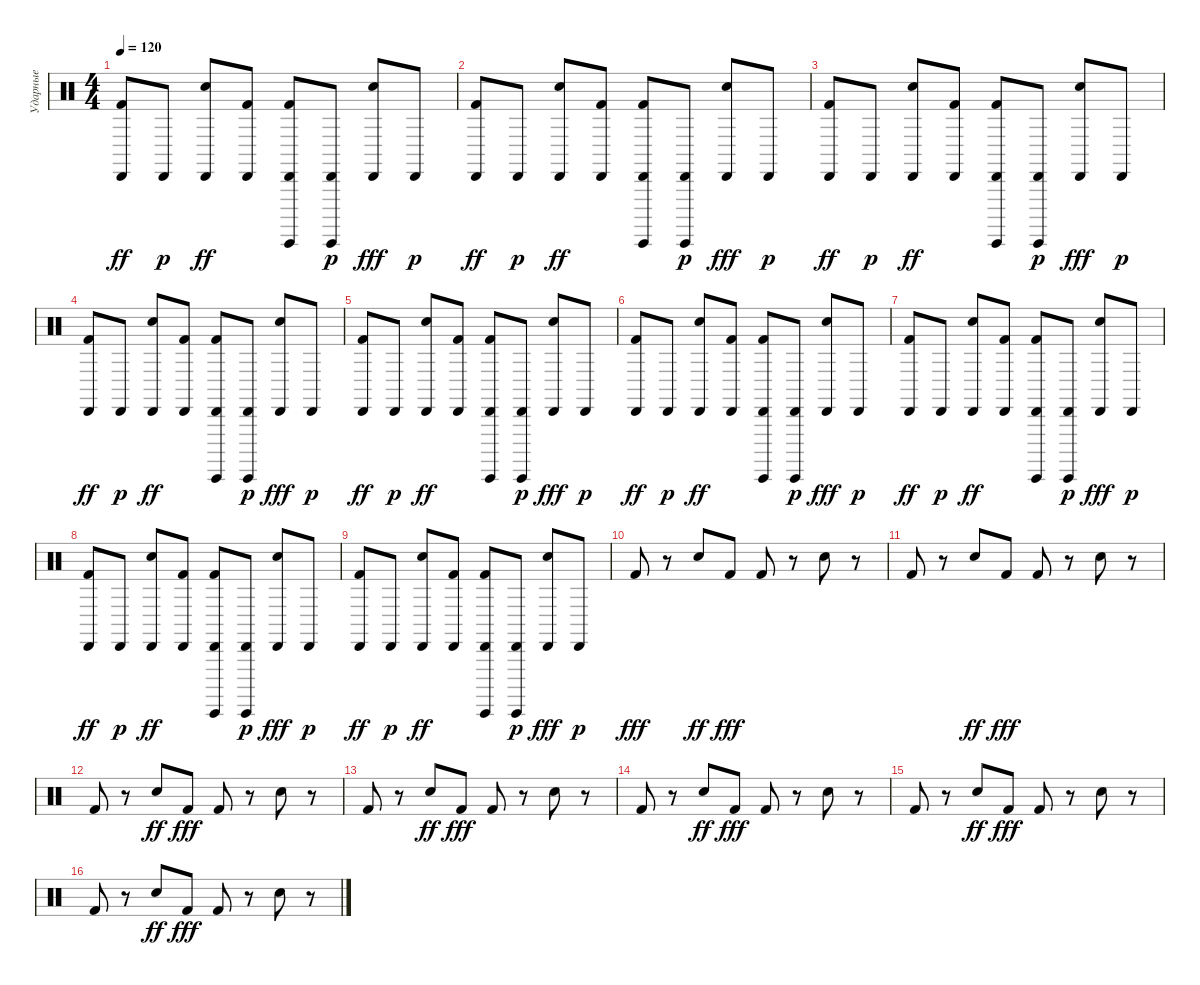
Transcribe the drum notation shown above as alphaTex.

\track ("Ударные" "Ударные") {instrument percussion}
\staff {score}
\articulation defaults
\ts (4 4)
\tempo 120
\clef neutral
\ks c
("Cabasa (hit)" "Kick (hit) 2").8{dy ff} "Cabasa (hit)".8{dy p} ("Cabasa (hit)" "Snare (hit) 2").8{dy ff} ("Cabasa (hit)" "Kick (hit) 2").8 ("Cabasa (hit)" "Guiro (hit)" "Kick (hit) 2").8 ("Cabasa (hit)" "Guiro (hit)").8{dy p} ("Cabasa (hit)" "Snare (hit) 2").8{dy fff} "Cabasa (hit)".8{dy p} |
("Cabasa (hit)" "Kick (hit) 2").8{dy ff} "Cabasa (hit)".8{dy p} ("Cabasa (hit)" "Snare (hit) 2").8{dy ff} ("Cabasa (hit)" "Kick (hit) 2").8 ("Cabasa (hit)" "Guiro (hit)" "Kick (hit) 2").8 ("Cabasa (hit)" "Guiro (hit)").8{dy p} ("Cabasa (hit)" "Snare (hit) 2").8{dy fff} "Cabasa (hit)".8{dy p} |
("Cabasa (hit)" "Kick (hit) 2").8{dy ff} "Cabasa (hit)".8{dy p} ("Cabasa (hit)" "Snare (hit) 2").8{dy ff} ("Cabasa (hit)" "Kick (hit) 2").8 ("Cabasa (hit)" "Guiro (hit)" "Kick (hit) 2").8 ("Cabasa (hit)" "Guiro (hit)").8{dy p} ("Cabasa (hit)" "Snare (hit) 2").8{dy fff} "Cabasa (hit)".8{dy p} |
("Cabasa (hit)" "Kick (hit) 2").8{dy ff} "Cabasa (hit)".8{dy p} ("Cabasa (hit)" "Snare (hit) 2").8{dy ff} ("Cabasa (hit)" "Kick (hit) 2").8 ("Cabasa (hit)" "Guiro (hit)" "Kick (hit) 2").8 ("Cabasa (hit)" "Guiro (hit)").8{dy p} ("Cabasa (hit)" "Snare (hit) 2").8{dy fff} "Cabasa (hit)".8{dy p} |
("Cabasa (hit)" "Kick (hit) 2").8{dy ff} "Cabasa (hit)".8{dy p} ("Cabasa (hit)" "Snare (hit) 2").8{dy ff} ("Cabasa (hit)" "Kick (hit) 2").8 ("Cabasa (hit)" "Guiro (hit)" "Kick (hit) 2").8 ("Cabasa (hit)" "Guiro (hit)").8{dy p} ("Cabasa (hit)" "Snare (hit) 2").8{dy fff} "Cabasa (hit)".8{dy p} |
("Cabasa (hit)" "Kick (hit) 2").8{dy ff} "Cabasa (hit)".8{dy p} ("Cabasa (hit)" "Snare (hit) 2").8{dy ff} ("Cabasa (hit)" "Kick (hit) 2").8 ("Cabasa (hit)" "Guiro (hit)" "Kick (hit) 2").8 ("Cabasa (hit)" "Guiro (hit)").8{dy p} ("Cabasa (hit)" "Snare (hit) 2").8{dy fff} "Cabasa (hit)".8{dy p} |
("Cabasa (hit)" "Kick (hit) 2").8{dy ff} "Cabasa (hit)".8{dy p} ("Cabasa (hit)" "Snare (hit) 2").8{dy ff} ("Cabasa (hit)" "Kick (hit) 2").8 ("Cabasa (hit)" "Guiro (hit)" "Kick (hit) 2").8 ("Cabasa (hit)" "Guiro (hit)").8{dy p} ("Cabasa (hit)" "Snare (hit) 2").8{dy fff} "Cabasa (hit)".8{dy p} |
("Cabasa (hit)" "Kick (hit) 2").8{dy ff} "Cabasa (hit)".8{dy p} ("Cabasa (hit)" "Snare (hit) 2").8{dy ff} ("Cabasa (hit)" "Kick (hit) 2").8 ("Cabasa (hit)" "Guiro (hit)" "Kick (hit) 2").8 ("Cabasa (hit)" "Guiro (hit)").8{dy p} ("Cabasa (hit)" "Snare (hit) 2").8{dy fff} "Cabasa (hit)".8{dy p} |
("Cabasa (hit)" "Kick (hit) 2").8{dy ff} "Cabasa (hit)".8{dy p} ("Cabasa (hit)" "Snare (hit) 2").8{dy ff} ("Cabasa (hit)" "Kick (hit) 2").8 ("Cabasa (hit)" "Guiro (hit)" "Kick (hit) 2").8 ("Cabasa (hit)" "Guiro (hit)").8{dy p} ("Cabasa (hit)" "Snare (hit) 2").8{dy fff} "Cabasa (hit)".8{dy p} |
"Kick (hit) 2".8{dy fff} r.8 "Snare (hit) 2".8{dy ff} "Kick (hit) 2".8{dy fff} "Kick (hit) 2".8 r.8 "Snare (hit) 2".8 r.8 |
"Kick (hit) 2".8 r.8 "Snare (hit) 2".8{dy ff} "Kick (hit) 2".8{dy fff} "Kick (hit) 2".8 r.8 "Snare (hit) 2".8 r.8 |
"Kick (hit) 2".8 r.8 "Snare (hit) 2".8{dy ff} "Kick (hit) 2".8{dy fff} "Kick (hit) 2".8 r.8 "Snare (hit) 2".8 r.8 |
"Kick (hit) 2".8 r.8 "Snare (hit) 2".8{dy ff} "Kick (hit) 2".8{dy fff} "Kick (hit) 2".8 r.8 "Snare (hit) 2".8 r.8 |
"Kick (hit) 2".8 r.8 "Snare (hit) 2".8{dy ff} "Kick (hit) 2".8{dy fff} "Kick (hit) 2".8 r.8 "Snare (hit) 2".8 r.8 |
"Kick (hit) 2".8 r.8 "Snare (hit) 2".8{dy ff} "Kick (hit) 2".8{dy fff} "Kick (hit) 2".8 r.8 "Snare (hit) 2".8 r.8 |
"Kick (hit) 2".8 r.8 "Snare (hit) 2".8{dy ff} "Kick (hit) 2".8{dy fff} "Kick (hit) 2".8 r.8 "Snare (hit) 2".8 r.8
